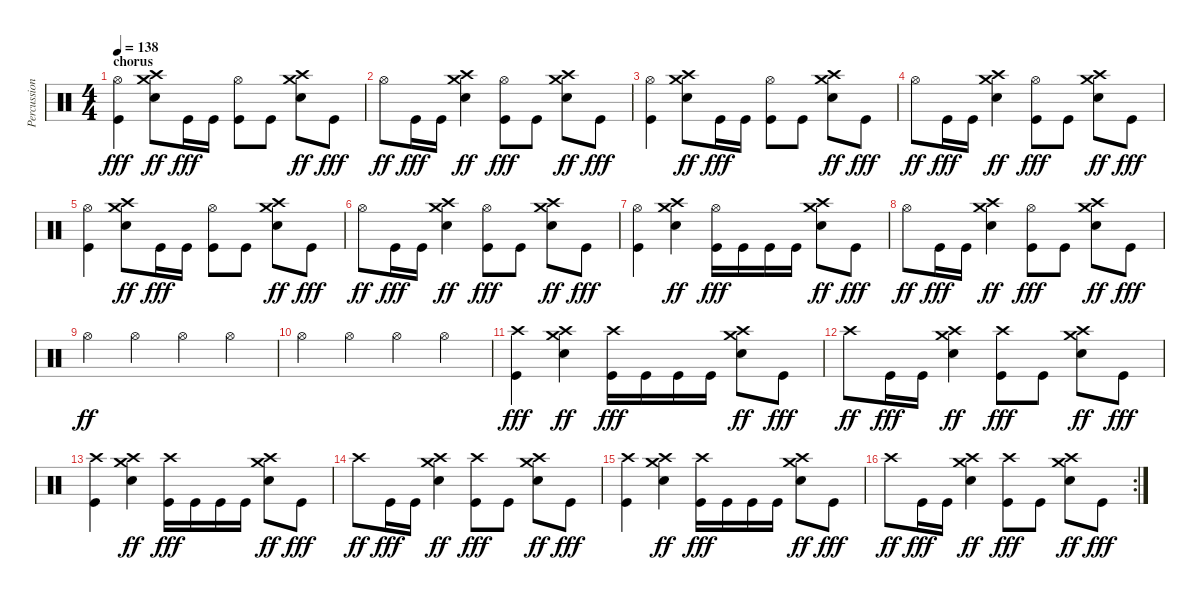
\track ("Percussion" "Percussion") {instrument percussion}
\staff {score}
\articulation defaults
\ts (4 4)
\section ("" "chorus")
\tempo 138
\clef neutral
\ks c
("Hi-Hat (open)" "Kick (hit)").4{dy fff} ("Crash medium (hit)" "Crash high (hit)" "Electric Snare (hit)").8{dy ff} "Kick (hit)".16{dy fff} "Kick (hit)".16 ("Hi-Hat (open)" "Kick (hit)").8 "Kick (hit)".8 ("Crash high (hit)" "Crash medium (hit)" "Electric Snare (hit)").8{dy ff} "Kick (hit)".8{dy fff} |
"Hi-Hat (open)".8{dy ff} "Kick (hit)".16{dy fff} "Kick (hit)".16 ("Crash high (hit)" "Crash medium (hit)" "Electric Snare (hit)").4{dy ff} ("Hi-Hat (open)" "Kick (hit)").8{dy fff} "Kick (hit)".8 ("Crash medium (hit)" "Crash high (hit)" "Electric Snare (hit)").8{dy ff} "Kick (hit)".8{dy fff} |
("Hi-Hat (open)" "Kick (hit)").4 ("Crash medium (hit)" "Crash high (hit)" "Electric Snare (hit)").8{dy ff} "Kick (hit)".16{dy fff} "Kick (hit)".16 ("Hi-Hat (open)" "Kick (hit)").8 "Kick (hit)".8 ("Crash high (hit)" "Crash medium (hit)" "Electric Snare (hit)").8{dy ff} "Kick (hit)".8{dy fff} |
"Hi-Hat (open)".8{dy ff} "Kick (hit)".16{dy fff} "Kick (hit)".16 ("Crash high (hit)" "Crash medium (hit)" "Electric Snare (hit)").4{dy ff} ("Hi-Hat (open)" "Kick (hit)").8{dy fff} "Kick (hit)".8 ("Crash medium (hit)" "Crash high (hit)" "Electric Snare (hit)").8{dy ff} "Kick (hit)".8{dy fff} |
("Hi-Hat (open)" "Kick (hit)").4 ("Crash medium (hit)" "Crash high (hit)" "Electric Snare (hit)").8{dy ff} "Kick (hit)".16{dy fff} "Kick (hit)".16 ("Hi-Hat (open)" "Kick (hit)").8 "Kick (hit)".8 ("Crash high (hit)" "Crash medium (hit)" "Electric Snare (hit)").8{dy ff} "Kick (hit)".8{dy fff} |
"Hi-Hat (open)".8{dy ff} "Kick (hit)".16{dy fff} "Kick (hit)".16 ("Crash high (hit)" "Crash medium (hit)" "Electric Snare (hit)").4{dy ff} ("Hi-Hat (open)" "Kick (hit)").8{dy fff} "Kick (hit)".8 ("Crash medium (hit)" "Crash high (hit)" "Electric Snare (hit)").8{dy ff} "Kick (hit)".8{dy fff} |
("Hi-Hat (open)" "Kick (hit)").4 ("Crash medium (hit)" "Crash high (hit)" "Electric Snare (hit)").4{dy ff} ("Hi-Hat (open)" "Kick (hit)").16{dy fff} "Kick (hit)".16 "Kick (hit)".16 "Kick (hit)".16 ("Crash high (hit)" "Crash medium (hit)" "Electric Snare (hit)").8{dy ff} "Kick (hit)".8{dy fff} |
"Hi-Hat (open)".8{dy ff} "Kick (hit)".16{dy fff} "Kick (hit)".16 ("Crash high (hit)" "Crash medium (hit)" "Electric Snare (hit)").4{dy ff} ("Hi-Hat (open)" "Kick (hit)").8{dy fff} "Kick (hit)".8 ("Crash medium (hit)" "Crash high (hit)" "Electric Snare (hit)").8{dy ff} "Kick (hit)".8{dy fff} |
"Hi-Hat (open)".4{dy ff} "Hi-Hat (open)".4 "Hi-Hat (open)".4 "Hi-Hat (open)".4 |
"Hi-Hat (open)".4 "Hi-Hat (open)".4 "Hi-Hat (open)".4 "Hi-Hat (open)".4 |
("Crash high (hit)" "Kick (hit)").4{dy fff} ("Crash medium (hit)" "Crash high (hit)" "Electric Snare (hit)").4{dy ff} ("Crash high (hit)" "Kick (hit)").16{dy fff} "Kick (hit)".16 "Kick (hit)".16 "Kick (hit)".16 ("Crash high (hit)" "Crash medium (hit)" "Electric Snare (hit)").8{dy ff} "Kick (hit)".8{dy fff} |
"Crash high (hit)".8{dy ff} "Kick (hit)".16{dy fff} "Kick (hit)".16 ("Crash high (hit)" "Crash medium (hit)" "Electric Snare (hit)").4{dy ff} ("Crash high (hit)" "Kick (hit)").8{dy fff} "Kick (hit)".8 ("Crash medium (hit)" "Crash high (hit)" "Electric Snare (hit)").8{dy ff} "Kick (hit)".8{dy fff} |
("Crash high (hit)" "Kick (hit)").4 ("Crash medium (hit)" "Crash high (hit)" "Electric Snare (hit)").4{dy ff} ("Crash high (hit)" "Kick (hit)").16{dy fff} "Kick (hit)".16 "Kick (hit)".16 "Kick (hit)".16 ("Crash high (hit)" "Crash medium (hit)" "Electric Snare (hit)").8{dy ff} "Kick (hit)".8{dy fff} |
"Crash high (hit)".8{dy ff} "Kick (hit)".16{dy fff} "Kick (hit)".16 ("Crash high (hit)" "Crash medium (hit)" "Electric Snare (hit)").4{dy ff} ("Crash high (hit)" "Kick (hit)").8{dy fff} "Kick (hit)".8 ("Crash medium (hit)" "Crash high (hit)" "Electric Snare (hit)").8{dy ff} "Kick (hit)".8{dy fff} |
("Crash high (hit)" "Kick (hit)").4 ("Crash medium (hit)" "Crash high (hit)" "Electric Snare (hit)").4{dy ff} ("Crash high (hit)" "Kick (hit)").16{dy fff} "Kick (hit)".16 "Kick (hit)".16 "Kick (hit)".16 ("Crash high (hit)" "Crash medium (hit)" "Electric Snare (hit)").8{dy ff} "Kick (hit)".8{dy fff} |
\rc 2 "Crash high (hit)".8{dy ff} "Kick (hit)".16{dy fff} "Kick (hit)".16
("Crash high (hit)" "Crash medium (hit)" "Electric Snare (hit)").4{dy ff} ("Crash high (hit)" "Kick (hit)").8{dy fff} "Kick (hit)".8 ("Crash medium (hit)" "Crash high (hit)" "Electric Snare (hit)").8{dy ff} "Kick (hit)".8{dy fff}
